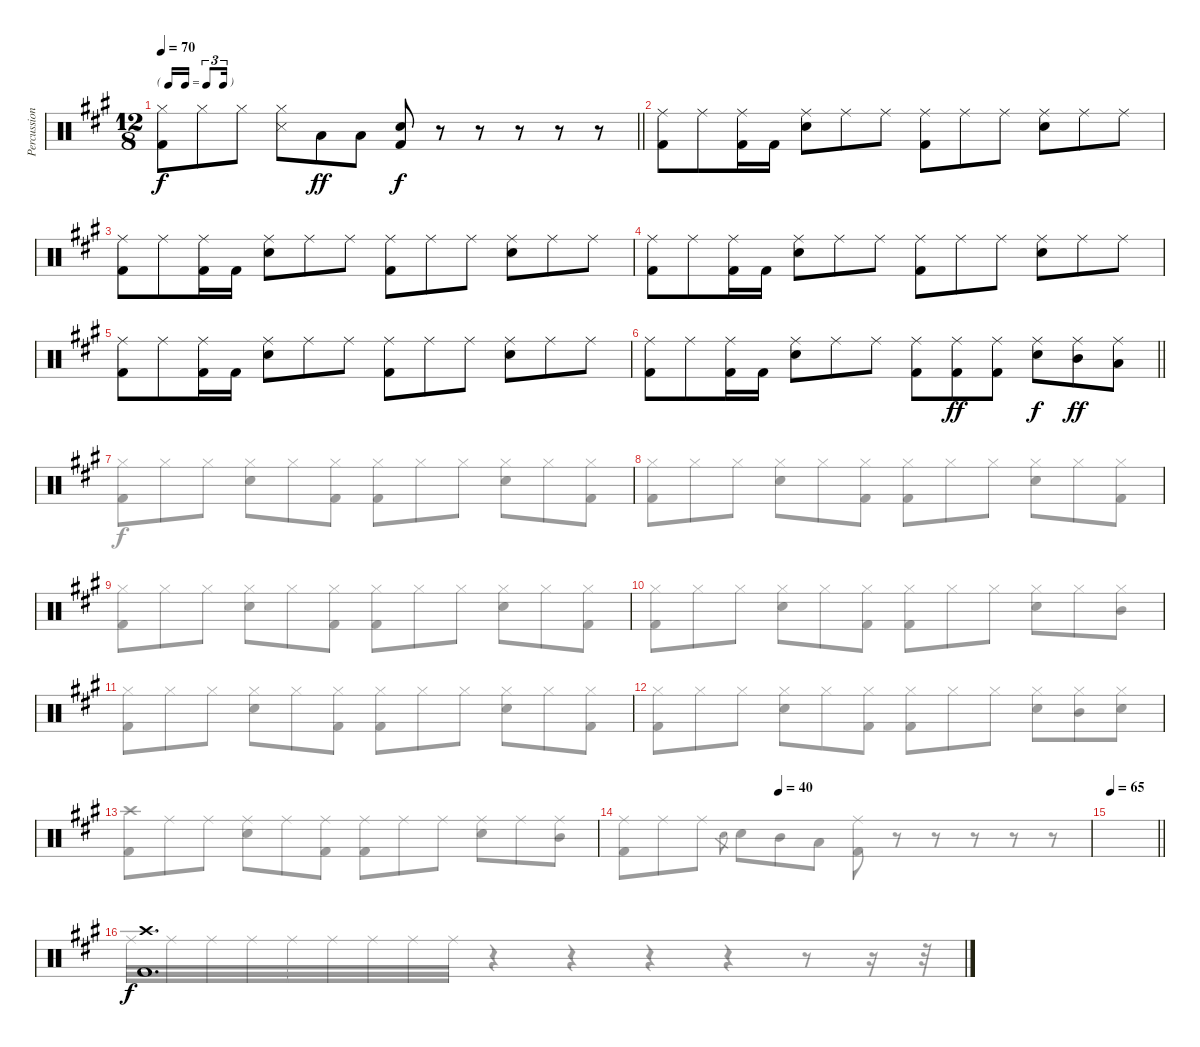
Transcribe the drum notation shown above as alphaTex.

\track ("Percussion" "Percussion") {instrument percussion}
\staff {score}
\articulation defaults
\voice
\ts (12 8)
\tf triplet16th
\tempo 70
\clef neutral
\barLineRight lightlight
\ks a
("Hi-Hat (closed)" "Kick (hit) 2").8{dy f} "Hi-Hat (closed)".8 "Hi-Hat (closed)".8 ("Hi-Hat (closed)" "Snare (side stick) 3").8 "Low Floor Tom (hit)".8{dy ff} "Low Floor Tom (hit)".8 ("Snare (hit) 2" "Kick (hit) 2").8{dy f} r.8 r.8 r.8 r.8 r.8 |
("Ride (middle)" "Kick (hit) 2").8 "Ride (middle)".8 ("Ride (middle)" "Kick (hit) 2").16 "Kick (hit) 2".16 ("Ride (middle)" "Snare (hit) 2").8 "Ride (middle)".8 "Ride (middle)".8 ("Ride (middle)" "Kick (hit) 2").8 "Ride (middle)".8 "Ride (middle)".8 ("Ride (middle)" "Snare (hit) 2").8 "Ride (middle)".8 "Ride (middle)".8 |
("Ride (middle)" "Kick (hit) 2").8 "Ride (middle)".8 ("Ride (middle)" "Kick (hit) 2").16 "Kick (hit) 2".16 ("Ride (middle)" "Snare (hit) 2").8 "Ride (middle)".8 "Ride (middle)".8 ("Ride (middle)" "Kick (hit) 2").8 "Ride (middle)".8 "Ride (middle)".8 ("Ride (middle)" "Snare (hit) 2").8 "Ride (middle)".8 "Ride (middle)".8 |
("Ride (middle)" "Kick (hit) 2").8 "Ride (middle)".8 ("Ride (middle)" "Kick (hit) 2").16 "Kick (hit) 2".16 ("Ride (middle)" "Snare (hit) 2").8 "Ride (middle)".8 "Ride (middle)".8 ("Ride (middle)" "Kick (hit) 2").8 "Ride (middle)".8 "Ride (middle)".8 ("Ride (middle)" "Snare (hit) 2").8 "Ride (middle)".8 "Ride (middle)".8 |
("Ride (middle)" "Kick (hit) 2").8 "Ride (middle)".8 ("Ride (middle)" "Kick (hit) 2").16 "Kick (hit) 2".16 ("Ride (middle)" "Snare (hit) 2").8 "Ride (middle)".8 "Ride (middle)".8 ("Ride (middle)" "Kick (hit) 2").8 "Ride (middle)".8 "Ride (middle)".8 ("Ride (middle)" "Snare (hit) 2").8 "Ride (middle)".8 "Ride (middle)".8 |
\barLineRight lightlight
("Ride (middle)" "Kick (hit) 2").8 "Ride (middle)".8 ("Ride (middle)" "Kick (hit) 2").16 "Kick (hit) 2".16 ("Ride (middle)" "Snare (hit) 2").8 "Ride (middle)".8 "Ride (middle)".8 ("Ride (middle)" "Kick (hit) 2").8 ("Ride (middle)" "Kick (hit) 2").8{dy ff} ("Ride (middle)" "Kick (hit) 2").8 ("Ride (middle)" "Snare (hit) 2").8{dy f} ("Ride (middle)" "Mid Tom (hit)").8{dy ff} ("Ride (middle)" "Low Floor Tom (hit)").8 |
|
|
|
|
|
|
|
\tempo (40 0.3333333333333333)
|
\tempo 65
\barLineRight lightlight
|
("Crash high (hit)" "Kick (hit) 2").1{d dy f}
\voice
\clef neutral
\ottava regular
\simile none
\barLineRight lightlight
\ks a
|
|
|
|
|
\barLineRight lightlight
|
("Hi-Hat (closed)" "Kick (hit) 2").8 "Hi-Hat (closed)".8 "Hi-Hat (closed)".8 ("Hi-Hat (closed)" "Snare (hit) 2").8 "Hi-Hat (closed)".8 ("Hi-Hat (closed)" "Kick (hit) 2").8 ("Hi-Hat (closed)" "Kick (hit) 2").8 "Hi-Hat (closed)".8 "Hi-Hat (closed)".8 ("Hi-Hat (closed)" "Snare (hit) 2").8 "Hi-Hat (closed)".8 ("Hi-Hat (closed)" "Kick (hit) 2").8 |
("Hi-Hat (closed)" "Kick (hit) 2").8 "Hi-Hat (closed)".8 "Hi-Hat (closed)".8 ("Hi-Hat (closed)" "Snare (hit) 2").8 "Hi-Hat (closed)".8 ("Hi-Hat (closed)" "Kick (hit) 2").8 ("Hi-Hat (closed)" "Kick (hit) 2").8 "Hi-Hat (closed)".8 "Hi-Hat (closed)".8 ("Hi-Hat (closed)" "Snare (hit) 2").8 "Hi-Hat (closed)".8 ("Hi-Hat (closed)" "Kick (hit) 2").8 |
("Hi-Hat (closed)" "Kick (hit) 2").8 "Hi-Hat (closed)".8 "Hi-Hat (closed)".8 ("Hi-Hat (closed)" "Snare (hit) 2").8 "Hi-Hat (closed)".8 ("Hi-Hat (closed)" "Kick (hit) 2").8 ("Hi-Hat (closed)" "Kick (hit) 2").8 "Hi-Hat (closed)".8 "Hi-Hat (closed)".8 ("Hi-Hat (closed)" "Snare (hit) 2").8 "Hi-Hat (closed)".8 ("Hi-Hat (closed)" "Kick (hit) 2").8 |
("Hi-Hat (closed)" "Kick (hit) 2").8 "Hi-Hat (closed)".8 "Hi-Hat (closed)".8 ("Hi-Hat (closed)" "Snare (hit) 2").8 "Hi-Hat (closed)".8 ("Hi-Hat (closed)" "Kick (hit) 2").8 ("Hi-Hat (closed)" "Kick (hit) 2").8 "Hi-Hat (closed)".8 "Hi-Hat (closed)".8 ("Hi-Hat (closed)" "Snare (hit) 2").8 "Hi-Hat (closed)".8 ("Hi-Hat (closed)" "Mid Tom (hit)").8 |
("Hi-Hat (closed)" "Kick (hit) 2").8 "Hi-Hat (closed)".8 "Hi-Hat (closed)".8 ("Hi-Hat (closed)" "Snare (hit) 2").8 "Hi-Hat (closed)".8 ("Hi-Hat (closed)" "Kick (hit) 2").8 ("Hi-Hat (closed)" "Kick (hit) 2").8 "Hi-Hat (closed)".8 "Hi-Hat (closed)".8 ("Hi-Hat (closed)" "Snare (hit) 2").8 "Hi-Hat (closed)".8 ("Hi-Hat (closed)" "Kick (hit) 2").8 |
("Hi-Hat (closed)" "Kick (hit) 2").8 "Hi-Hat (closed)".8 "Hi-Hat (closed)".8 ("Hi-Hat (closed)" "Snare (hit) 2").8 "Hi-Hat (closed)".8 ("Hi-Hat (closed)" "Kick (hit) 2").8 ("Hi-Hat (closed)" "Kick (hit) 2").8 "Hi-Hat (closed)".8 "Hi-Hat (closed)".8 ("Hi-Hat (closed)" "Snare (hit) 2").8 ("Hi-Hat (closed)" "Mid Tom (hit)").8 ("Hi-Hat (closed)" "Snare (hit) 2").8 |
("Crash high (hit)" "Kick (hit) 2").8 "Ride (middle)".8 "Ride (middle)".8 ("Ride (middle)" "Snare (hit) 2").8 "Ride (middle)".8 ("Ride (middle)" "Kick (hit) 2").8 ("Ride (middle)" "Kick (hit) 2").8 "Ride (middle)".8 "Ride (middle)".8 ("Ride (middle)" "Snare (hit) 2").8 "Ride (middle)".8 ("Ride (middle)" "Mid Tom (hit)").8 |
("Ride (middle)" "Kick (hit) 2").8 "Ride (middle)".8 "Ride (middle)".8 "Snare (hit) 2".8{gr} "Snare (hit) 2".8 "Mid Tom (hit)".8 "Low Floor Tom (hit)".8 ("Ride (middle)" "Kick (hit) 2").8 r.8 r.8 r.8 r.8 r.8 |
\barLineRight lightlight
|
"Ride (middle)".32 "Ride (middle)".32 "Ride (middle)".32 "Ride (middle)".32 "Ride (middle)".32 "Ride (middle)".32 "Ride (middle)".32 "Ride (middle)".32 "Ride (middle)".32 r.4 r.4 r.4 r.4 r.8 r.16 r.32
